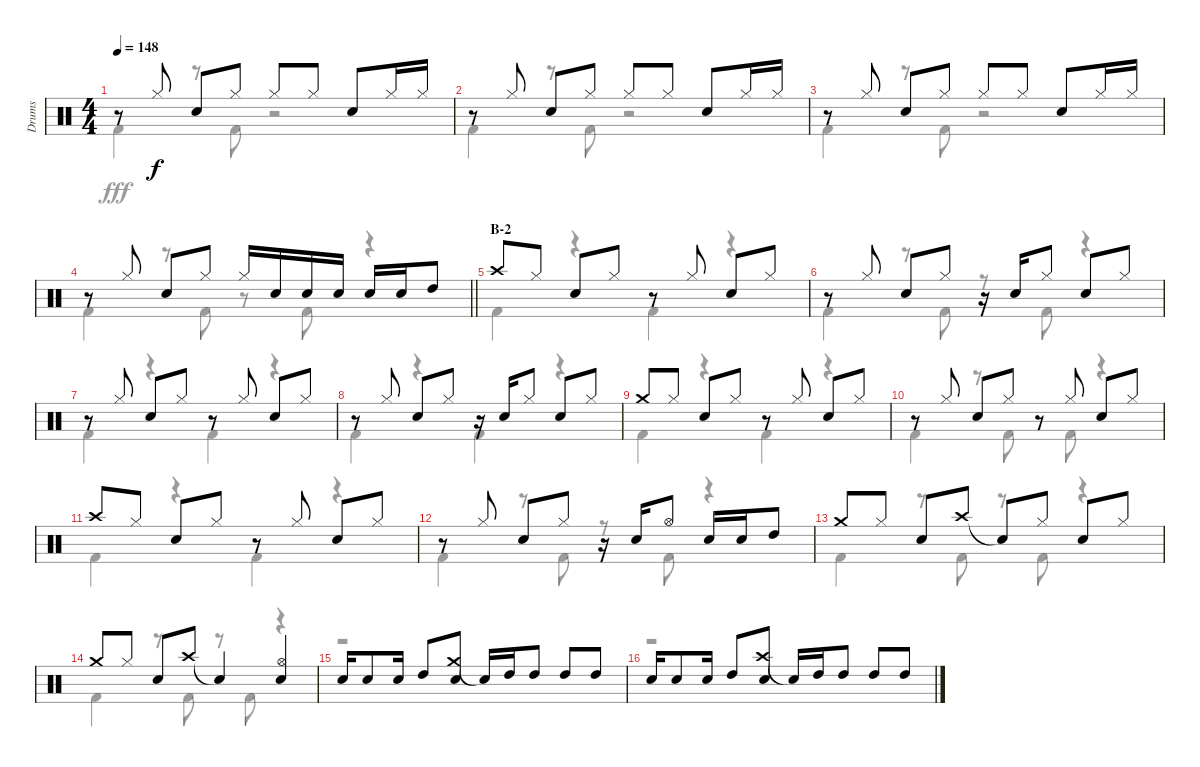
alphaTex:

\track ("Drums" "Drums") {instrument percussion}
\staff {score}
\articulation defaults
\voice
\ts (4 4)
\tempo 148
\clef neutral
\ks c
r.8{dy f} "Hi-Hat (closed)".8 "Snare (hit) 2".8 "Hi-Hat (closed)".8 "Hi-Hat (closed)".8 "Hi-Hat (closed)".8 "Snare (hit) 2".8 "Hi-Hat (closed)".16 "Hi-Hat (closed)".16 |
r.8 "Hi-Hat (closed)".8 "Snare (hit) 2".8 "Hi-Hat (closed)".8 "Hi-Hat (closed)".8 "Hi-Hat (closed)".8 "Snare (hit) 2".8 "Hi-Hat (closed)".16 "Hi-Hat (closed)".16 |
r.8 "Hi-Hat (closed)".8 "Snare (hit) 2".8 "Hi-Hat (closed)".8 "Hi-Hat (closed)".8 "Hi-Hat (closed)".8 "Snare (hit) 2".8 "Hi-Hat (closed)".16 "Hi-Hat (closed)".16 |
\barLineRight lightlight
r.8 "Hi-Hat (closed)".8 "Snare (hit) 2".8 "Hi-Hat (closed)".8 "Hi-Hat (closed)".16 "Snare (hit) 2".16 "Snare (hit) 2".16 "Snare (hit) 2".16 "Snare (hit) 2".16 "Snare (hit) 2".16 "High Tom (hit)".8 |
\section ("" "B-2")
"Crash high (hit)".8 "Hi-Hat (closed)".8 "Snare (hit) 2".8 "Hi-Hat (closed)".8 r.8 "Hi-Hat (closed)".8 "Snare (hit) 2".8 "Hi-Hat (closed)".8 |
r.8 "Hi-Hat (closed)".8 "Snare (hit) 2".8 "Hi-Hat (closed)".8 r.16 "Snare (hit) 2".16 "Hi-Hat (closed)".8 "Snare (hit) 2".8 "Hi-Hat (closed)".8 |
r.8 "Hi-Hat (closed)".8 "Snare (hit) 2".8 "Hi-Hat (closed)".8 r.8 "Hi-Hat (closed)".8 "Snare (hit) 2".8 "Hi-Hat (closed)".8 |
r.8 "Hi-Hat (closed)".8 "Snare (hit) 2".8 "Hi-Hat (closed)".8 r.16 "Snare (hit) 2".16 "Hi-Hat (closed)".8 "Snare (hit) 2".8 "Hi-Hat (closed)".8 |
"Crash medium (hit)".8 "Hi-Hat (closed)".8 "Snare (hit) 2".8 "Hi-Hat (closed)".8 r.8 "Hi-Hat (closed)".8 "Snare (hit) 2".8 "Hi-Hat (closed)".8 |
r.8 "Hi-Hat (closed)".8 "Snare (hit) 2".8 "Hi-Hat (closed)".8 r.8 "Hi-Hat (closed)".8 "Snare (hit) 2".8 "Hi-Hat (closed)".8 |
"Crash high (hit)".8 "Hi-Hat (closed)".8 "Snare (hit) 2".8 "Hi-Hat (closed)".8 r.8 "Hi-Hat (closed)".8 "Snare (hit) 2".8 "Hi-Hat (closed)".8 |
r.8 "Hi-Hat (closed)".8 "Snare (hit) 2".8 "Hi-Hat (closed)".8 r.16 "Snare (hit) 2".16 "Hi-Hat (open)".8 "Snare (hit) 2".16 "Snare (hit) 2".16 "High Tom (hit)".8 |
"Crash medium (hit)".8 "Hi-Hat (closed)".8 "Snare (hit) 2".8 "Crash high (hit)".8 "Snare (hit)"{t}.8 "Hi-Hat (closed)".8 "Snare (hit) 2".8 "Hi-Hat (closed)".8 |
"Crash medium (hit)".8 "Hi-Hat (closed)".8 "Snare (hit) 2".8 "Crash high (hit)".8 "Snare (hit)"{t}.4 ("Hi-Hat (open)" "Snare (hit) 2").4 |
"Snare (hit) 2".16 "Snare (hit) 2".8 "Snare (hit) 2".16 "High Tom (hit)".8 ("Crash medium (hit)" "Snare (hit) 2").8 "Snare (hit)"{t}.16 "High Tom (hit)".16 "High Tom (hit)".8 "High Tom (hit)".8 "High Tom (hit)".8 |
"Snare (hit) 2".16 "Snare (hit) 2".8 "Snare (hit) 2".16 "High Tom (hit)".8 ("Crash high (hit)" "Snare (hit) 2").8 "Snare (hit)"{t}.16 "High Tom (hit)".16 "High Tom (hit)".8 "High Tom (hit)".8 "High Tom (hit)".8
\voice
\clef neutral
\ottava regular
\simile none
\ks c "Kick (hit) 2".4{dy fff}
r.8 "Kick (hit) 2".8 r.2 |
"Kick (hit) 2".4 r.8 "Kick (hit) 2".8 r.2 |
"Kick (hit) 2".4 r.8 "Kick (hit) 2".8 r.2 |
\barLineRight lightlight "Kick (hit) 2".4
r.8 "Kick (hit) 2".8 r.8 "Kick (hit) 2".8 r.4 |
"Kick (hit) 2".4 r.4 "Kick (hit) 2".4 r.4 |
"Kick (hit) 2".4 r.8 "Kick (hit) 2".8 r.8 "Kick (hit) 2".8 r.4 |
"Kick (hit) 2".4 r.4 "Kick (hit) 2".4 r.4 |
"Kick (hit) 2".4 r.4 "Kick (hit) 2".4 r.4 |
"Kick (hit) 2".4 r.4 "Kick (hit) 2".4 r.4 |
"Kick (hit) 2".4 r.8 "Kick (hit) 2".8 r.8 "Kick (hit) 2".8 r.4 |
"Kick (hit) 2".4 r.4 "Kick (hit) 2".4 r.4 |
"Kick (hit) 2".4 r.8 "Kick (hit) 2".8 r.8 "Kick (hit) 2".8 r.4 |
"Kick (hit) 2".4 r.8 "Kick (hit) 2".8 r.8 "Kick (hit) 2".8 r.4 |
"Kick (hit) 2".4 r.8 "Kick (hit) 2".8 r.8 "Kick (hit) 2".8 r.4 |
r.1 |
r.1
